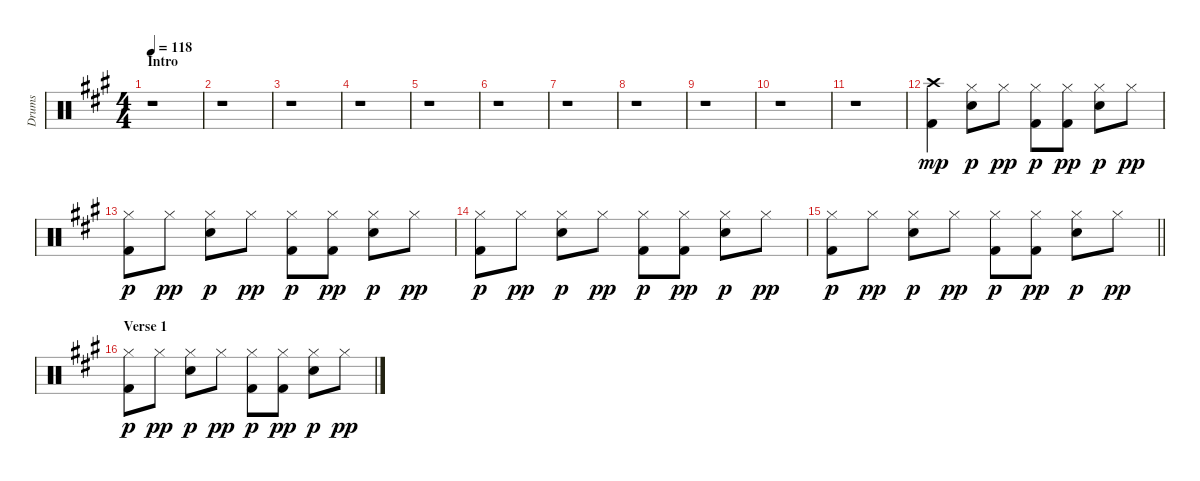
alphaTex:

\track ("Drums" "Drums") {instrument percussion}
\staff {score}
\articulation defaults
\ts (4 4)
\section ("" "Intro")
\tempo 118
\clef neutral
\ks a
r.1{dy mp} |
r.1 |
r.1 |
r.1 |
r.1 |
r.1 |
r.1 |
r.1 |
r.1 |
r.1 |
r.1 |
("Crash high (hit)" "Kick (hit) 2").4 ("Hi-Hat (closed)" "Electric Snare (hit)").8{dy p} "Hi-Hat (closed)".8{dy pp} ("Hi-Hat (closed)" "Kick (hit) 2").8{dy p} ("Hi-Hat (closed)" "Kick (hit) 2").8{dy pp} ("Hi-Hat (closed)" "Electric Snare (hit)").8{dy p} "Hi-Hat (closed)".8{dy pp} |
("Hi-Hat (closed)" "Kick (hit) 2").8{dy p} "Hi-Hat (closed)".8{dy pp} ("Hi-Hat (closed)" "Electric Snare (hit)").8{dy p} "Hi-Hat (closed)".8{dy pp} ("Hi-Hat (closed)" "Kick (hit) 2").8{dy p} ("Hi-Hat (closed)" "Kick (hit) 2").8{dy pp} ("Hi-Hat (closed)" "Electric Snare (hit)").8{dy p} "Hi-Hat (closed)".8{dy pp} |
("Hi-Hat (closed)" "Kick (hit) 2").8{dy p} "Hi-Hat (closed)".8{dy pp} ("Hi-Hat (closed)" "Electric Snare (hit)").8{dy p} "Hi-Hat (closed)".8{dy pp} ("Hi-Hat (closed)" "Kick (hit) 2").8{dy p} ("Hi-Hat (closed)" "Kick (hit) 2").8{dy pp} ("Hi-Hat (closed)" "Electric Snare (hit)").8{dy p} "Hi-Hat (closed)".8{dy pp} |
\barLineRight lightlight
("Hi-Hat (closed)" "Kick (hit) 2").8{dy p} "Hi-Hat (closed)".8{dy pp} ("Hi-Hat (closed)" "Electric Snare (hit)").8{dy p} "Hi-Hat (closed)".8{dy pp} ("Hi-Hat (closed)" "Kick (hit) 2").8{dy p} ("Hi-Hat (closed)" "Kick (hit) 2").8{dy pp} ("Hi-Hat (closed)" "Electric Snare (hit)").8{dy p} "Hi-Hat (closed)".8{dy pp} |
\section ("" "Verse 1")
("Hi-Hat (closed)" "Kick (hit) 2").8{dy p} "Hi-Hat (closed)".8{dy pp} ("Hi-Hat (closed)" "Electric Snare (hit)").8{dy p} "Hi-Hat (closed)".8{dy pp} ("Hi-Hat (closed)" "Kick (hit) 2").8{dy p} ("Hi-Hat (closed)" "Kick (hit) 2").8{dy pp} ("Hi-Hat (closed)" "Electric Snare (hit)").8{dy p} "Hi-Hat (closed)".8{dy pp}
